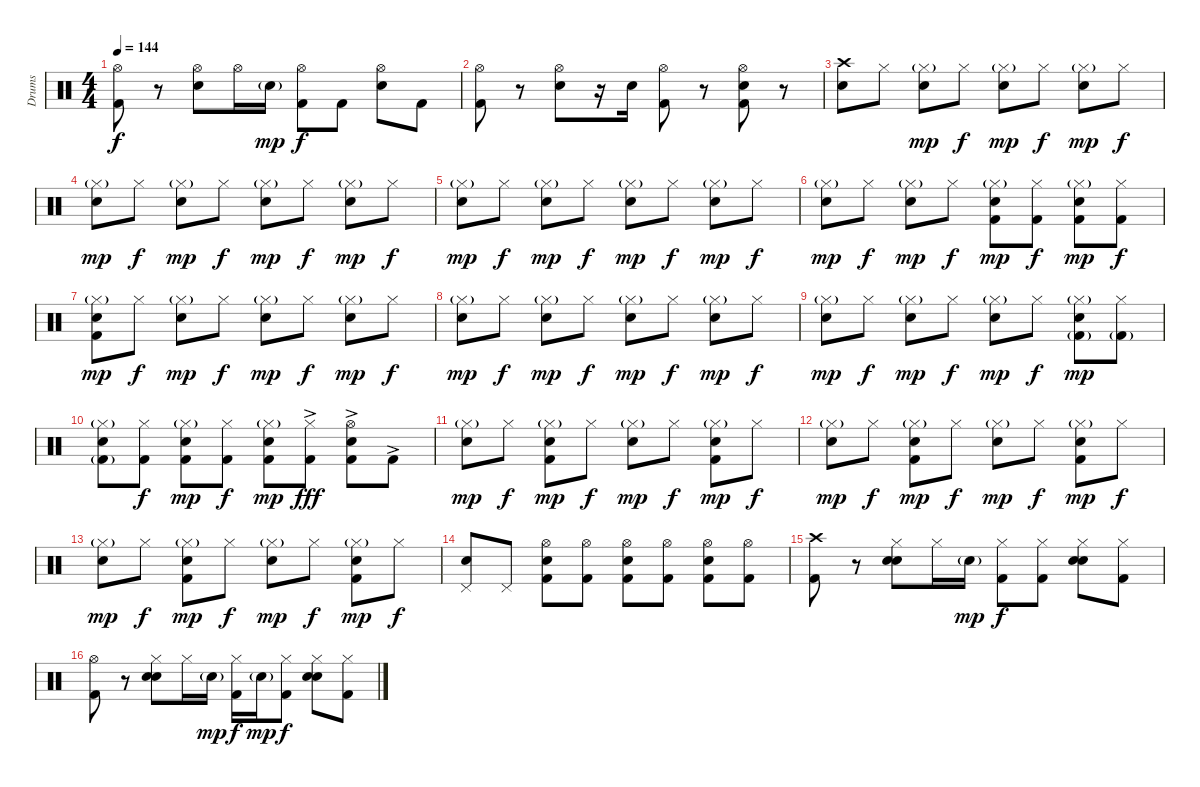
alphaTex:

\track ("Drums" "Drums") {instrument percussion}
\staff {score}
\articulation defaults
\ts (4 4)
\tempo 144
\clef neutral
\ks c
("Hi-Hat (open)" "Kick (hit) 2").8{dy f} r.8 ("Hi-Hat (open)" "Snare (hit) 2").8 "Hi-Hat (open)".16 "Snare (hit) 2"{g}.16{dy mp} ("Hi-Hat (open)" "Kick (hit) 2").8{dy f} "Kick (hit) 2".8 ("Hi-Hat (open)" "Snare (hit) 2").8 "Kick (hit) 2".8 |
("Hi-Hat (open)" "Kick (hit) 2").8 r.8 ("Hi-Hat (open)" "Snare (hit) 2").8 r.16 "Snare (hit) 2".16 ("Hi-Hat (open)" "Kick (hit) 2").8 r.8 ("Hi-Hat (open)" "Snare (hit) 2" "Kick (hit) 2").8 r.8 |
("Crash high (hit)" "Snare (hit) 2").8 "Hi-Hat (closed)".8 ("Hi-Hat (closed)"{g} "Snare (hit) 2").8{dy mp} "Hi-Hat (closed)".8{dy f} ("Hi-Hat (closed)"{g} "Snare (hit) 2").8{dy mp} "Hi-Hat (closed)".8{dy f} ("Hi-Hat (closed)"{g} "Snare (hit) 2").8{dy mp} "Hi-Hat (closed)".8{dy f} |
("Hi-Hat (closed)"{g} "Snare (hit) 2").8{dy mp} "Hi-Hat (closed)".8{dy f} ("Hi-Hat (closed)"{g} "Snare (hit) 2").8{dy mp} "Hi-Hat (closed)".8{dy f} ("Hi-Hat (closed)"{g} "Snare (hit) 2").8{dy mp} "Hi-Hat (closed)".8{dy f} ("Hi-Hat (closed)"{g} "Snare (hit) 2").8{dy mp} "Hi-Hat (closed)".8{dy f} |
("Hi-Hat (closed)"{g} "Snare (hit) 2").8{dy mp} "Hi-Hat (closed)".8{dy f} ("Hi-Hat (closed)"{g} "Snare (hit) 2").8{dy mp} "Hi-Hat (closed)".8{dy f} ("Hi-Hat (closed)"{g} "Snare (hit) 2").8{dy mp} "Hi-Hat (closed)".8{dy f} ("Hi-Hat (closed)"{g} "Snare (hit) 2").8{dy mp} "Hi-Hat (closed)".8{dy f} |
("Hi-Hat (closed)"{g} "Snare (hit) 2").8{dy mp} "Hi-Hat (closed)".8{dy f} ("Hi-Hat (closed)"{g} "Snare (hit) 2").8{dy mp} "Hi-Hat (closed)".8{dy f} ("Hi-Hat (closed)"{g} "Snare (hit) 2" "Kick (hit) 2").8{dy mp} ("Hi-Hat (closed)" "Kick (hit) 2").8{dy f} ("Hi-Hat (closed)"{g} "Snare (hit) 2" "Kick (hit) 2").8{dy mp} ("Hi-Hat (closed)" "Kick (hit) 2").8{dy f} |
("Hi-Hat (closed)"{g} "Snare (hit) 2" "Kick (hit) 2").8{dy mp} "Hi-Hat (closed)".8{dy f} ("Hi-Hat (closed)"{g} "Snare (hit) 2").8{dy mp} "Hi-Hat (closed)".8{dy f} ("Hi-Hat (closed)"{g} "Snare (hit) 2").8{dy mp} "Hi-Hat (closed)".8{dy f} ("Hi-Hat (closed)"{g} "Snare (hit) 2").8{dy mp} "Hi-Hat (closed)".8{dy f} |
("Hi-Hat (closed)"{g} "Snare (hit) 2").8{dy mp} "Hi-Hat (closed)".8{dy f} ("Hi-Hat (closed)"{g} "Snare (hit) 2").8{dy mp} "Hi-Hat (closed)".8{dy f} ("Hi-Hat (closed)"{g} "Snare (hit) 2").8{dy mp} "Hi-Hat (closed)".8{dy f} ("Hi-Hat (closed)"{g} "Snare (hit) 2").8{dy mp} "Hi-Hat (closed)".8{dy f} |
("Hi-Hat (closed)"{g} "Snare (hit) 2").8{dy mp} "Hi-Hat (closed)".8{dy f} ("Hi-Hat (closed)"{g} "Snare (hit) 2").8{dy mp} "Hi-Hat (closed)".8{dy f} ("Hi-Hat (closed)"{g} "Snare (hit) 2").8{dy mp} "Hi-Hat (closed)".8{dy f} ("Hi-Hat (closed)"{g} "Snare (hit) 2" "Kick (hit) 2"{g}).8{dy mp} ("Hi-Hat (closed)" "Kick (hit) 2"{g}).8 |
("Hi-Hat (closed)"{g} "Snare (hit) 2" "Kick (hit) 2"{g}).8 ("Hi-Hat (closed)" "Kick (hit) 2").8{dy f} ("Hi-Hat (closed)"{g} "Snare (hit) 2" "Kick (hit) 2").8{dy mp} ("Hi-Hat (closed)" "Kick (hit) 2").8{dy f} ("Hi-Hat (closed)"{g} "Snare (hit) 2" "Kick (hit) 2").8{dy mp} ("Hi-Hat (closed)" "Kick (hit) 2"{ac}).8{dy fff} ("Hi-Hat (open)" "Snare (hit) 2" "Kick (hit) 2"{ac}).8 "Kick (hit) 2"{ac}.8 |
("Hi-Hat (closed)"{g} "Snare (hit) 2").8{dy mp} "Hi-Hat (closed)".8{dy f} ("Hi-Hat (closed)"{g} "Snare (hit) 2" "Kick (hit) 2").8{dy mp} "Hi-Hat (closed)".8{dy f} ("Hi-Hat (closed)"{g} "Snare (hit) 2").8{dy mp} "Hi-Hat (closed)".8{dy f} ("Hi-Hat (closed)"{g} "Snare (hit) 2" "Kick (hit) 2").8{dy mp} "Hi-Hat (closed)".8{dy f} |
("Hi-Hat (closed)"{g} "Snare (hit) 2").8{dy mp} "Hi-Hat (closed)".8{dy f} ("Hi-Hat (closed)"{g} "Snare (hit) 2" "Kick (hit) 2").8{dy mp} "Hi-Hat (closed)".8{dy f} ("Hi-Hat (closed)"{g} "Snare (hit) 2").8{dy mp} "Hi-Hat (closed)".8{dy f} ("Hi-Hat (closed)"{g} "Snare (hit) 2" "Kick (hit) 2").8{dy mp} "Hi-Hat (closed)".8{dy f} |
("Hi-Hat (closed)"{g} "Snare (hit) 2").8{dy mp} "Hi-Hat (closed)".8{dy f} ("Hi-Hat (closed)"{g} "Snare (hit) 2" "Kick (hit) 2").8{dy mp} "Hi-Hat (closed)".8{dy f} ("Hi-Hat (closed)"{g} "Snare (hit) 2").8{dy mp} "Hi-Hat (closed)".8{dy f} ("Hi-Hat (closed)"{g} "Snare (hit) 2" "Kick (hit) 2").8{dy mp} "Hi-Hat (closed)".8{dy f} |
("Pedal Hi-Hat (hit)" "Snare (hit) 2").8 "Pedal Hi-Hat (hit)".8 ("Hi-Hat (open)" "Snare (hit) 2" "Kick (hit) 2").8 ("Hi-Hat (open)" "Kick (hit) 2").8 ("Hi-Hat (open)" "Snare (hit) 2" "Kick (hit) 2").8 ("Hi-Hat (open)" "Kick (hit) 2").8 ("Hi-Hat (open)" "Snare (hit) 2" "Kick (hit) 2").8 ("Hi-Hat (open)" "Kick (hit) 2").8 |
("Crash high (hit)" "Kick (hit) 2").8 r.8 ("Hi-Hat (closed)" "Snare (hit) 2" "Hand Clap (hit)").8 "Hi-Hat (closed)".16 "Snare (hit) 2"{g}.16{dy mp} ("Hi-Hat (closed)" "Kick (hit) 2").8{dy f} ("Hi-Hat (closed)" "Kick (hit) 2").8 ("Hi-Hat (closed)" "Snare (hit) 2" "Hand Clap (hit)").8 ("Hi-Hat (closed)" "Kick (hit) 2").8 |
("Hi-Hat (open)" "Kick (hit) 2").8 r.8 ("Hi-Hat (closed)" "Snare (hit) 2" "Hand Clap (hit)").8 "Hi-Hat (closed)".16 "Snare (hit) 2"{g}.16{dy mp} ("Hi-Hat (closed)" "Kick (hit) 2").16{dy f} "Snare (hit) 2"{g}.16{dy mp} ("Hi-Hat (closed)" "Kick (hit) 2").8{dy f} ("Hi-Hat (closed)" "Snare (hit) 2" "Hand Clap (hit)").8 ("Hi-Hat (closed)" "Kick (hit) 2").8
